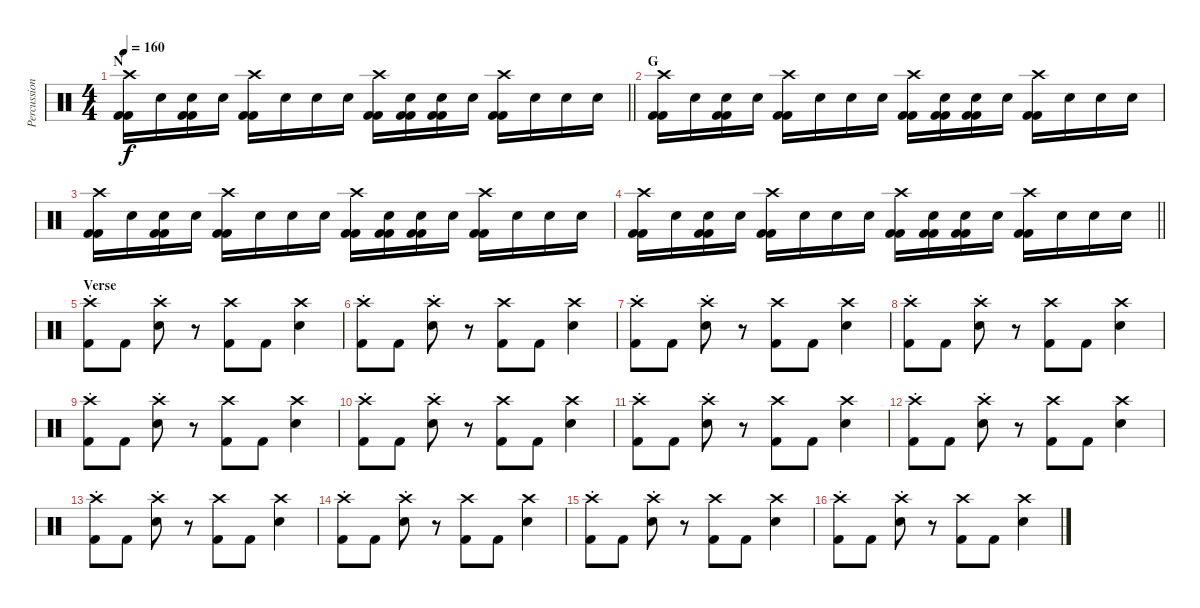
\track ("Percussion" "Percussion") {instrument percussion}
\staff {score}
\articulation defaults
\ts (4 4)
\section ("" "N")
\tempo 160
\clef neutral
\barLineRight lightlight
\ks c
("Crash high (hit)" "Kick (hit) 2" "Kick (hit) 2").16{dy f} "Snare (hit)".16 ("Snare (hit)" "Kick (hit) 2" "Kick (hit) 2").16 "Snare (hit)".16 ("Crash high (hit)" "Kick (hit) 2" "Kick (hit) 2").16 "Snare (hit)".16 "Snare (hit)".16 "Snare (hit)".16 ("Crash high (hit)" "Kick (hit) 2" "Kick (hit) 2").16 ("Snare (hit)" "Kick (hit) 2" "Kick (hit) 2").16 ("Snare (hit)" "Kick (hit) 2" "Kick (hit) 2").16 "Snare (hit)".16 ("Crash high (hit)" "Kick (hit) 2" "Kick (hit) 2").16 "Snare (hit)".16 "Snare (hit)".16 "Snare (hit)".16 |
\section ("" "G")
("Crash high (hit)" "Kick (hit) 2" "Kick (hit) 2").16 "Snare (hit)".16 ("Snare (hit)" "Kick (hit) 2" "Kick (hit) 2").16 "Snare (hit)".16 ("Crash high (hit)" "Kick (hit) 2" "Kick (hit) 2").16 "Snare (hit)".16 "Snare (hit)".16 "Snare (hit)".16 ("Crash high (hit)" "Kick (hit) 2" "Kick (hit) 2").16 ("Snare (hit)" "Kick (hit) 2" "Kick (hit) 2").16 ("Snare (hit)" "Kick (hit) 2" "Kick (hit) 2").16 "Snare (hit)".16 ("Crash high (hit)" "Kick (hit) 2" "Kick (hit) 2").16 "Snare (hit)".16 "Snare (hit)".16 "Snare (hit)".16 |
("Crash high (hit)" "Kick (hit) 2" "Kick (hit) 2").16 "Snare (hit)".16 ("Snare (hit)" "Kick (hit) 2" "Kick (hit) 2").16 "Snare (hit)".16 ("Crash high (hit)" "Kick (hit) 2" "Kick (hit) 2").16 "Snare (hit)".16 "Snare (hit)".16 "Snare (hit)".16 ("Crash high (hit)" "Kick (hit) 2" "Kick (hit) 2").16 ("Snare (hit)" "Kick (hit) 2" "Kick (hit) 2").16 ("Snare (hit)" "Kick (hit) 2" "Kick (hit) 2").16 "Snare (hit)".16 ("Crash high (hit)" "Kick (hit) 2" "Kick (hit) 2").16 "Snare (hit)".16 "Snare (hit)".16 "Snare (hit)".16 |
\barLineRight lightlight
("Crash high (hit)" "Kick (hit) 2" "Kick (hit) 2").16 "Snare (hit)".16 ("Snare (hit)" "Kick (hit) 2" "Kick (hit) 2").16 "Snare (hit)".16 ("Crash high (hit)" "Kick (hit) 2" "Kick (hit) 2").16 "Snare (hit)".16 "Snare (hit)".16 "Snare (hit)".16 ("Crash high (hit)" "Kick (hit) 2" "Kick (hit) 2").16 ("Snare (hit)" "Kick (hit) 2" "Kick (hit) 2").16 ("Snare (hit)" "Kick (hit) 2" "Kick (hit) 2").16 "Snare (hit)".16 ("Crash high (hit)" "Kick (hit) 2" "Kick (hit) 2").16 "Snare (hit)".16 "Snare (hit)".16 "Snare (hit)".16 |
\section ("" "Verse")
("Crash high (hit)"{st} "Kick (hit) 2").8 "Kick (hit) 2".8 ("Crash high (hit)"{st} "Snare (hit) 2").8 r.8 ("Crash high (hit)" "Kick (hit) 2").8 "Kick (hit) 2".8 ("Crash high (hit)" "Snare (hit) 2").4 |
("Crash high (hit)"{st} "Kick (hit) 2").8 "Kick (hit) 2".8 ("Crash high (hit)"{st} "Snare (hit) 2").8 r.8 ("Crash high (hit)" "Kick (hit) 2").8 "Kick (hit) 2".8 ("Crash high (hit)" "Snare (hit) 2").4 |
("Crash high (hit)"{st} "Kick (hit) 2").8 "Kick (hit) 2".8 ("Crash high (hit)"{st} "Snare (hit) 2").8 r.8 ("Crash high (hit)" "Kick (hit) 2").8 "Kick (hit) 2".8 ("Crash high (hit)" "Snare (hit) 2").4 |
("Crash high (hit)"{st} "Kick (hit) 2").8 "Kick (hit) 2".8 ("Crash high (hit)"{st} "Snare (hit) 2").8 r.8 ("Crash high (hit)" "Kick (hit) 2").8 "Kick (hit) 2".8 ("Crash high (hit)" "Snare (hit) 2").4 |
("Crash high (hit)"{st} "Kick (hit) 2").8 "Kick (hit) 2".8 ("Crash high (hit)"{st} "Snare (hit) 2").8 r.8 ("Crash high (hit)" "Kick (hit) 2").8 "Kick (hit) 2".8 ("Crash high (hit)" "Snare (hit) 2").4 |
("Crash high (hit)"{st} "Kick (hit) 2").8 "Kick (hit) 2".8 ("Crash high (hit)"{st} "Snare (hit) 2").8 r.8 ("Crash high (hit)" "Kick (hit) 2").8 "Kick (hit) 2".8 ("Crash high (hit)" "Snare (hit) 2").4 |
("Crash high (hit)"{st} "Kick (hit) 2").8 "Kick (hit) 2".8 ("Crash high (hit)"{st} "Snare (hit) 2").8 r.8 ("Crash high (hit)" "Kick (hit) 2").8 "Kick (hit) 2".8 ("Crash high (hit)" "Snare (hit) 2").4 |
("Crash high (hit)"{st} "Kick (hit) 2").8 "Kick (hit) 2".8 ("Crash high (hit)"{st} "Snare (hit) 2").8 r.8 ("Crash high (hit)" "Kick (hit) 2").8 "Kick (hit) 2".8 ("Crash high (hit)" "Snare (hit) 2").4 |
("Crash high (hit)"{st} "Kick (hit) 2").8 "Kick (hit) 2".8 ("Crash high (hit)"{st} "Snare (hit) 2").8 r.8 ("Crash high (hit)" "Kick (hit) 2").8 "Kick (hit) 2".8 ("Crash high (hit)" "Snare (hit) 2").4 |
("Crash high (hit)"{st} "Kick (hit) 2").8 "Kick (hit) 2".8 ("Crash high (hit)"{st} "Snare (hit) 2").8 r.8 ("Crash high (hit)" "Kick (hit) 2").8 "Kick (hit) 2".8 ("Crash high (hit)" "Snare (hit) 2").4 |
("Crash high (hit)"{st} "Kick (hit) 2").8 "Kick (hit) 2".8 ("Crash high (hit)"{st} "Snare (hit) 2").8 r.8 ("Crash high (hit)" "Kick (hit) 2").8 "Kick (hit) 2".8 ("Crash high (hit)" "Snare (hit) 2").4 |
("Crash high (hit)"{st} "Kick (hit) 2").8 "Kick (hit) 2".8 ("Crash high (hit)"{st} "Snare (hit) 2").8 r.8 ("Crash high (hit)" "Kick (hit) 2").8 "Kick (hit) 2".8 ("Crash high (hit)" "Snare (hit) 2").4
